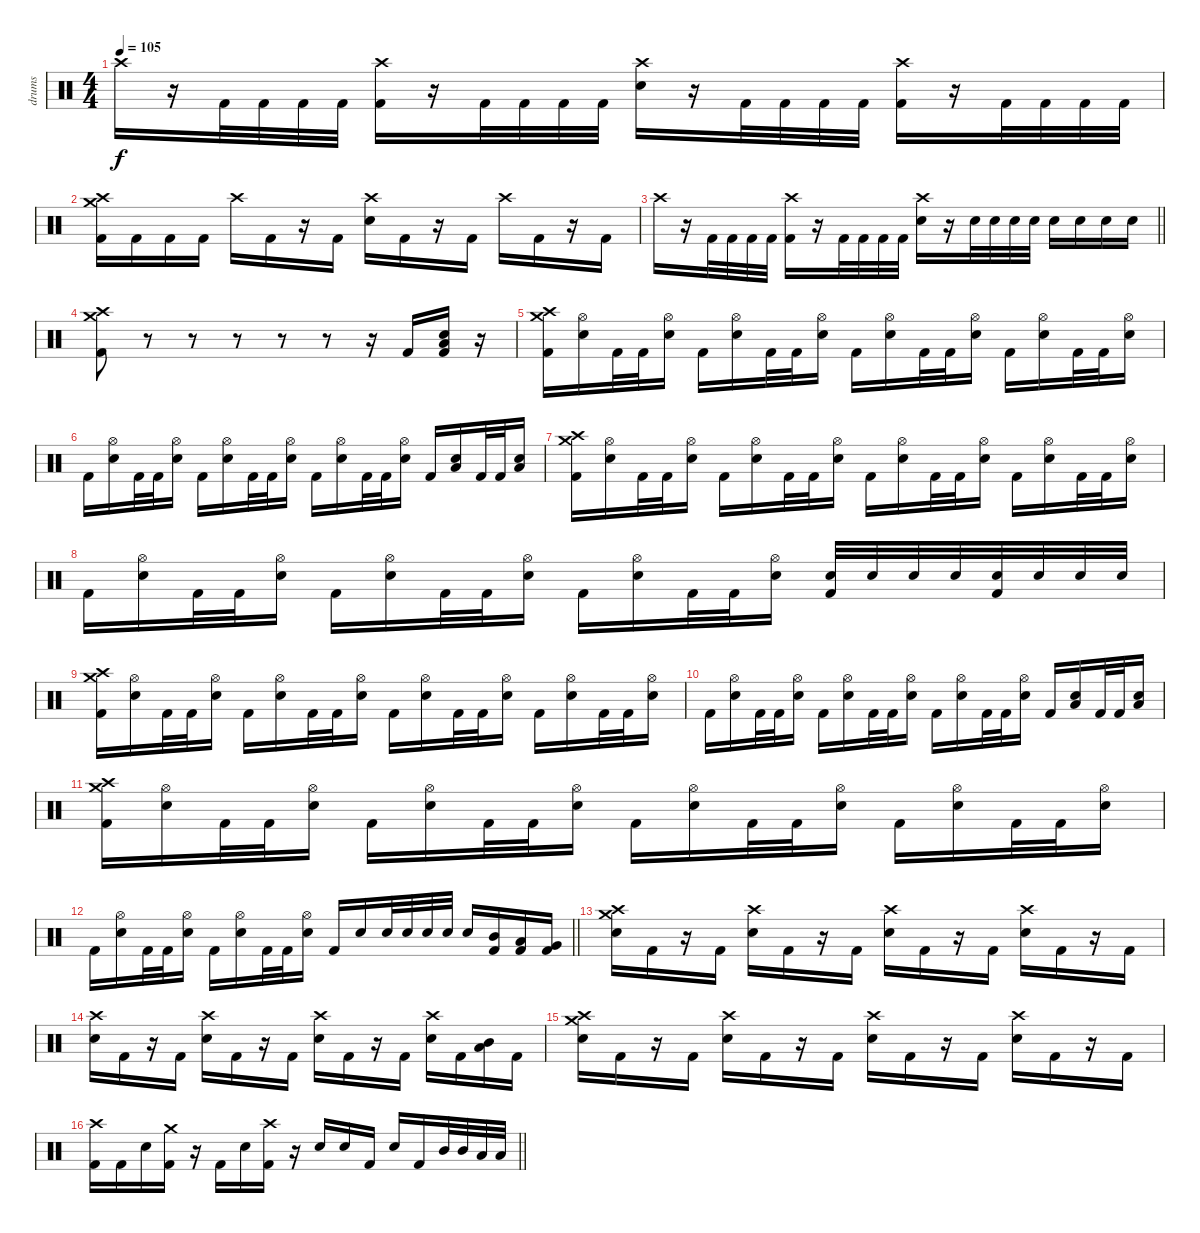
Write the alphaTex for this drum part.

\track ("drums" "drums") {instrument percussion}
\staff {score}
\articulation defaults
\ts (4 4)
\tempo 105
\clef neutral
\ks c "Crash high (hit)".16{dy f}
r.16 "Kick (hit) 2".32 "Kick (hit) 2".32 "Kick (hit) 2".32 "Kick (hit) 2".32 ("Crash high (hit)" "Kick (hit) 2").16 r.16 "Kick (hit) 2".32 "Kick (hit) 2".32 "Kick (hit) 2".32 "Kick (hit) 2".32 ("Crash high (hit)" "Electric Snare (hit)").16 r.16 "Kick (hit) 2".32 "Kick (hit) 2".32 "Kick (hit) 2".32 "Kick (hit) 2".32 ("Crash high (hit)" "Kick (hit) 2").16 r.16 "Kick (hit) 2".32 "Kick (hit) 2".32 "Kick (hit) 2".32 "Kick (hit) 2".32 |
("Crash medium (hit)" "Crash high (hit)" "Kick (hit) 2").16 "Kick (hit) 2".16 "Kick (hit) 2".16 "Kick (hit) 2".16 "Crash high (hit)".16 "Kick (hit) 2".16 r.16 "Kick (hit) 2".16 ("Crash high (hit)" "Electric Snare (hit)").16 "Kick (hit) 2".16 r.16 "Kick (hit) 2".16 "Crash high (hit)".16 "Kick (hit) 2".16 r.16 "Kick (hit) 2".16 |
\barLineRight lightlight "Crash high (hit)".16
r.16 "Kick (hit) 2".32 "Kick (hit) 2".32 "Kick (hit) 2".32 "Kick (hit) 2".32 ("Crash high (hit)" "Kick (hit) 2").16 r.16 "Kick (hit) 2".32 "Kick (hit) 2".32 "Kick (hit) 2".32 "Kick (hit) 2".32 ("Crash high (hit)" "Electric Snare (hit)").16 r.16 "Electric Snare (hit)".32 "Electric Snare (hit)".32 "Electric Snare (hit)".32 "Electric Snare (hit)".32 "Electric Snare (hit)".16 "Electric Snare (hit)".16 "Electric Snare (hit)".16 "Electric Snare (hit)".16 |
\section ("" "")
("Crash medium (hit)" "Crash high (hit)" "Kick (hit) 2").8 r.8 r.8 r.8 r.8 r.8 r.16 "Kick (hit) 2".16 ("Kick (hit) 2" "Low Floor Tom (hit)" "Electric Snare (hit)").16 r.16 |
("Crash medium (hit)" "Crash high (hit)" "Kick (hit) 2").16 ("Hi-Hat (open)" "Electric Snare (hit)").16 "Kick (hit) 2".32 "Kick (hit) 2".32 ("Hi-Hat (open)" "Electric Snare (hit)").16 "Kick (hit) 2".16 ("Hi-Hat (open)" "Electric Snare (hit)").16 "Kick (hit) 2".32 "Kick (hit) 2".32 ("Hi-Hat (open)" "Electric Snare (hit)").16 "Kick (hit) 2".16 ("Hi-Hat (open)" "Electric Snare (hit)").16 "Kick (hit) 2".32 "Kick (hit) 2".32 ("Hi-Hat (open)" "Electric Snare (hit)").16 "Kick (hit) 2".16 ("Hi-Hat (open)" "Electric Snare (hit)").16 "Kick (hit) 2".32 "Kick (hit) 2".32 ("Hi-Hat (open)" "Electric Snare (hit)").16 |
"Kick (hit) 2".16 ("Hi-Hat (open)" "Electric Snare (hit)").16 "Kick (hit) 2".32 "Kick (hit) 2".32 ("Hi-Hat (open)" "Electric Snare (hit)").16 "Kick (hit) 2".16 ("Hi-Hat (open)" "Electric Snare (hit)").16 "Kick (hit) 2".32 "Kick (hit) 2".32 ("Hi-Hat (open)" "Electric Snare (hit)").16 "Kick (hit) 2".16 ("Hi-Hat (open)" "Electric Snare (hit)").16 "Kick (hit) 2".32 "Kick (hit) 2".32 ("Hi-Hat (open)" "Electric Snare (hit)").16 "Kick (hit) 2".16 ("Low Floor Tom (hit)" "Electric Snare (hit)").16 "Kick (hit) 2".32 "Kick (hit) 2".32 ("Low Floor Tom (hit)" "Electric Snare (hit)").16 |
("Crash medium (hit)" "Crash high (hit)" "Kick (hit) 2").16 ("Hi-Hat (open)" "Electric Snare (hit)").16 "Kick (hit) 2".32 "Kick (hit) 2".32 ("Hi-Hat (open)" "Electric Snare (hit)").16 "Kick (hit) 2".16 ("Hi-Hat (open)" "Electric Snare (hit)").16 "Kick (hit) 2".32 "Kick (hit) 2".32 ("Hi-Hat (open)" "Electric Snare (hit)").16 "Kick (hit) 2".16 ("Hi-Hat (open)" "Electric Snare (hit)").16 "Kick (hit) 2".32 "Kick (hit) 2".32 ("Hi-Hat (open)" "Electric Snare (hit)").16 "Kick (hit) 2".16 ("Hi-Hat (open)" "Electric Snare (hit)").16 "Kick (hit) 2".32 "Kick (hit) 2".32 ("Hi-Hat (open)" "Electric Snare (hit)").16 |
"Kick (hit) 2".16 ("Hi-Hat (open)" "Electric Snare (hit)").16 "Kick (hit) 2".32 "Kick (hit) 2".32 ("Hi-Hat (open)" "Electric Snare (hit)").16 "Kick (hit) 2".16 ("Hi-Hat (open)" "Electric Snare (hit)").16 "Kick (hit) 2".32 "Kick (hit) 2".32 ("Hi-Hat (open)" "Electric Snare (hit)").16 "Kick (hit) 2".16 ("Hi-Hat (open)" "Electric Snare (hit)").16 "Kick (hit) 2".32 "Kick (hit) 2".32 ("Hi-Hat (open)" "Electric Snare (hit)").16 ("Kick (hit) 2" "Electric Snare (hit)").32 "Electric Snare (hit)".32 "Electric Snare (hit)".32 "Electric Snare (hit)".32 ("Kick (hit) 2" "Electric Snare (hit)").32 "Electric Snare (hit)".32 "Electric Snare (hit)".32 "Electric Snare (hit)".32 |
("Crash medium (hit)" "Crash high (hit)" "Kick (hit) 2").16 ("Hi-Hat (open)" "Electric Snare (hit)").16 "Kick (hit) 2".32 "Kick (hit) 2".32 ("Hi-Hat (open)" "Electric Snare (hit)").16 "Kick (hit) 2".16 ("Hi-Hat (open)" "Electric Snare (hit)").16 "Kick (hit) 2".32 "Kick (hit) 2".32 ("Hi-Hat (open)" "Electric Snare (hit)").16 "Kick (hit) 2".16 ("Hi-Hat (open)" "Electric Snare (hit)").16 "Kick (hit) 2".32 "Kick (hit) 2".32 ("Hi-Hat (open)" "Electric Snare (hit)").16 "Kick (hit) 2".16 ("Hi-Hat (open)" "Electric Snare (hit)").16 "Kick (hit) 2".32 "Kick (hit) 2".32 ("Hi-Hat (open)" "Electric Snare (hit)").16 |
"Kick (hit) 2".16 ("Hi-Hat (open)" "Electric Snare (hit)").16 "Kick (hit) 2".32 "Kick (hit) 2".32 ("Hi-Hat (open)" "Electric Snare (hit)").16 "Kick (hit) 2".16 ("Hi-Hat (open)" "Electric Snare (hit)").16 "Kick (hit) 2".32 "Kick (hit) 2".32 ("Hi-Hat (open)" "Electric Snare (hit)").16 "Kick (hit) 2".16 ("Hi-Hat (open)" "Electric Snare (hit)").16 "Kick (hit) 2".32 "Kick (hit) 2".32 ("Hi-Hat (open)" "Electric Snare (hit)").16 "Kick (hit) 2".16 ("Low Floor Tom (hit)" "Electric Snare (hit)").16 "Kick (hit) 2".32 "Kick (hit) 2".32 ("Low Floor Tom (hit)" "Electric Snare (hit)").16 |
("Crash medium (hit)" "Crash high (hit)" "Kick (hit) 2").16 ("Hi-Hat (open)" "Electric Snare (hit)").16 "Kick (hit) 2".32 "Kick (hit) 2".32 ("Hi-Hat (open)" "Electric Snare (hit)").16 "Kick (hit) 2".16 ("Hi-Hat (open)" "Electric Snare (hit)").16 "Kick (hit) 2".32 "Kick (hit) 2".32 ("Hi-Hat (open)" "Electric Snare (hit)").16 "Kick (hit) 2".16 ("Hi-Hat (open)" "Electric Snare (hit)").16 "Kick (hit) 2".32 "Kick (hit) 2".32 ("Hi-Hat (open)" "Electric Snare (hit)").16 "Kick (hit) 2".16 ("Hi-Hat (open)" "Electric Snare (hit)").16 "Kick (hit) 2".32 "Kick (hit) 2".32 ("Hi-Hat (open)" "Electric Snare (hit)").16 |
\barLineRight lightlight "Kick (hit) 2".16
("Hi-Hat (open)" "Electric Snare (hit)").16 "Kick (hit) 2".32 "Kick (hit) 2".32 ("Hi-Hat (open)" "Electric Snare (hit)").16 "Kick (hit) 2".16 ("Hi-Hat (open)" "Electric Snare (hit)").16 "Kick (hit) 2".32 "Kick (hit) 2".32 ("Hi-Hat (open)" "Electric Snare (hit)").16 "Kick (hit) 2".16 "Electric Snare (hit)".16 "Electric Snare (hit)".32 "Electric Snare (hit)".32 "Electric Snare (hit)".32 "Electric Snare (hit)".32 "Electric Snare (hit)".16 ("Mid Tom (hit)" "Kick (hit) 2").16 ("Low Tom (hit)" "Kick (hit) 2").16 ("Very Low Tom (hit)" "Kick (hit) 2").16 |
\section ("" "")
("Crash medium (hit)" "Crash high (hit)" "Electric Snare (hit)").16 "Kick (hit) 2".16 r.16 "Kick (hit) 2".16 ("Crash high (hit)" "Electric Snare (hit)").16 "Kick (hit) 2".16 r.16 "Kick (hit) 2".16 ("Crash high (hit)" "Electric Snare (hit)").16 "Kick (hit) 2".16 r.16 "Kick (hit) 2".16 ("Crash high (hit)" "Electric Snare (hit)").16 "Kick (hit) 2".16 r.16 "Kick (hit) 2".16 |
("Crash high (hit)" "Electric Snare (hit)").16 "Kick (hit) 2".16 r.16 "Kick (hit) 2".16 ("Crash high (hit)" "Electric Snare (hit)").16 "Kick (hit) 2".16 r.16 "Kick (hit) 2".16 ("Crash high (hit)" "Electric Snare (hit)").16 "Kick (hit) 2".16 r.16 "Kick (hit) 2".16 ("Crash high (hit)" "Electric Snare (hit)").16 "Kick (hit) 2".16 ("Low Tom (hit)" "Mid Tom (hit)").16 "Kick (hit) 2".16 |
("Crash medium (hit)" "Crash high (hit)" "Electric Snare (hit)").16 "Kick (hit) 2".16 r.16 "Kick (hit) 2".16 ("Crash high (hit)" "Electric Snare (hit)").16 "Kick (hit) 2".16 r.16 "Kick (hit) 2".16 ("Crash high (hit)" "Electric Snare (hit)").16 "Kick (hit) 2".16 r.16 "Kick (hit) 2".16 ("Crash high (hit)" "Electric Snare (hit)").16 "Kick (hit) 2".16 r.16 "Kick (hit) 2".16 |
\barLineRight lightlight
("Crash high (hit)" "Kick (hit) 2").16 "Kick (hit) 2".16 "Electric Snare (hit)".16 ("Crash medium (hit)" "Kick (hit) 2").16 r.16 "Kick (hit) 2".16 "Electric Snare (hit)".16 ("Crash high (hit)" "Kick (hit) 2").16 r.16 "Electric Snare (hit)".16 "Electric Snare (hit)".16 "Kick (hit) 2".16 "Electric Snare (hit)".16 "Kick (hit) 2".16 "Mid Tom (hit)".32 "Mid Tom (hit)".32 "Low Tom (hit)".32 "Low Tom (hit)".32
